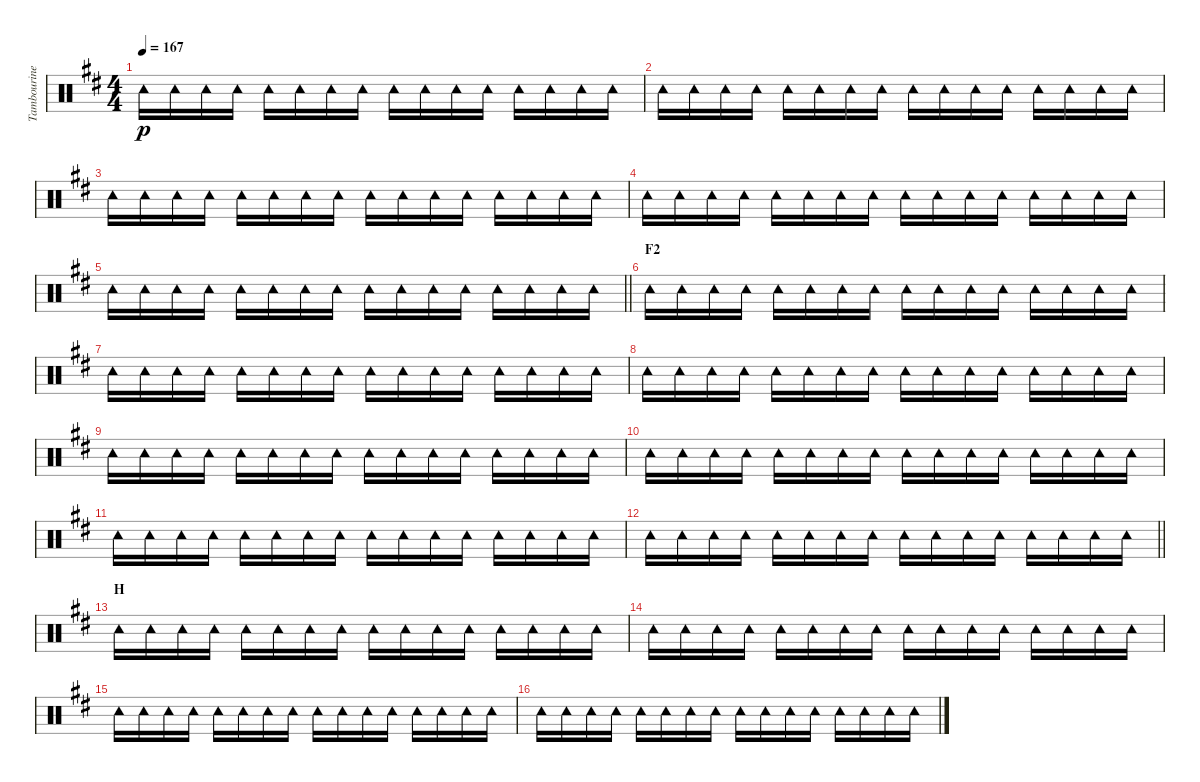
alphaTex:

\track ("Tambourine" "Tambourine") {instrument percussion}
\staff {score}
\articulation defaults
\ts (4 4)
\tempo 167
\clef neutral
\ks d "Tambourine (hit)".16{dy p} "Tambourine (hit)".16 "Tambourine (hit)".16 "Tambourine (hit)".16 "Tambourine (hit)".16 "Tambourine (hit)".16 "Tambourine (hit)".16 "Tambourine (hit)".16 "Tambourine (hit)".16 "Tambourine (hit)".16 "Tambourine (hit)".16 "Tambourine (hit)".16 "Tambourine (hit)".16 "Tambourine (hit)".16 "Tambourine (hit)".16 "Tambourine (hit)".16
|
"Tambourine (hit)".16 "Tambourine (hit)".16 "Tambourine (hit)".16 "Tambourine (hit)".16 "Tambourine (hit)".16 "Tambourine (hit)".16 "Tambourine (hit)".16 "Tambourine (hit)".16 "Tambourine (hit)".16 "Tambourine (hit)".16 "Tambourine (hit)".16 "Tambourine (hit)".16 "Tambourine (hit)".16 "Tambourine (hit)".16 "Tambourine (hit)".16 "Tambourine (hit)".16 |
"Tambourine (hit)".16 "Tambourine (hit)".16 "Tambourine (hit)".16 "Tambourine (hit)".16 "Tambourine (hit)".16 "Tambourine (hit)".16 "Tambourine (hit)".16 "Tambourine (hit)".16 "Tambourine (hit)".16 "Tambourine (hit)".16 "Tambourine (hit)".16 "Tambourine (hit)".16 "Tambourine (hit)".16 "Tambourine (hit)".16 "Tambourine (hit)".16 "Tambourine (hit)".16 |
"Tambourine (hit)".16 "Tambourine (hit)".16 "Tambourine (hit)".16 "Tambourine (hit)".16 "Tambourine (hit)".16 "Tambourine (hit)".16 "Tambourine (hit)".16 "Tambourine (hit)".16 "Tambourine (hit)".16 "Tambourine (hit)".16 "Tambourine (hit)".16 "Tambourine (hit)".16 "Tambourine (hit)".16 "Tambourine (hit)".16 "Tambourine (hit)".16 "Tambourine (hit)".16 |
\barLineRight lightlight "Tambourine (hit)".16 "Tambourine (hit)".16 "Tambourine (hit)".16 "Tambourine (hit)".16 "Tambourine (hit)".16 "Tambourine (hit)".16 "Tambourine (hit)".16 "Tambourine (hit)".16 "Tambourine (hit)".16 "Tambourine (hit)".16 "Tambourine (hit)".16 "Tambourine (hit)".16 "Tambourine (hit)".16 "Tambourine (hit)".16 "Tambourine (hit)".16 "Tambourine (hit)".16
|
\section ("" "F2")
"Tambourine (hit)".16 "Tambourine (hit)".16 "Tambourine (hit)".16 "Tambourine (hit)".16 "Tambourine (hit)".16 "Tambourine (hit)".16 "Tambourine (hit)".16 "Tambourine (hit)".16 "Tambourine (hit)".16 "Tambourine (hit)".16 "Tambourine (hit)".16 "Tambourine (hit)".16 "Tambourine (hit)".16 "Tambourine (hit)".16 "Tambourine (hit)".16 "Tambourine (hit)".16 |
"Tambourine (hit)".16 "Tambourine (hit)".16 "Tambourine (hit)".16 "Tambourine (hit)".16 "Tambourine (hit)".16 "Tambourine (hit)".16 "Tambourine (hit)".16 "Tambourine (hit)".16 "Tambourine (hit)".16 "Tambourine (hit)".16 "Tambourine (hit)".16 "Tambourine (hit)".16 "Tambourine (hit)".16 "Tambourine (hit)".16 "Tambourine (hit)".16 "Tambourine (hit)".16 |
"Tambourine (hit)".16 "Tambourine (hit)".16 "Tambourine (hit)".16 "Tambourine (hit)".16 "Tambourine (hit)".16 "Tambourine (hit)".16 "Tambourine (hit)".16 "Tambourine (hit)".16 "Tambourine (hit)".16 "Tambourine (hit)".16 "Tambourine (hit)".16 "Tambourine (hit)".16 "Tambourine (hit)".16 "Tambourine (hit)".16 "Tambourine (hit)".16 "Tambourine (hit)".16 |
"Tambourine (hit)".16 "Tambourine (hit)".16 "Tambourine (hit)".16 "Tambourine (hit)".16 "Tambourine (hit)".16 "Tambourine (hit)".16 "Tambourine (hit)".16 "Tambourine (hit)".16 "Tambourine (hit)".16 "Tambourine (hit)".16 "Tambourine (hit)".16 "Tambourine (hit)".16 "Tambourine (hit)".16 "Tambourine (hit)".16 "Tambourine (hit)".16 "Tambourine (hit)".16 |
"Tambourine (hit)".16 "Tambourine (hit)".16 "Tambourine (hit)".16 "Tambourine (hit)".16 "Tambourine (hit)".16 "Tambourine (hit)".16 "Tambourine (hit)".16 "Tambourine (hit)".16 "Tambourine (hit)".16 "Tambourine (hit)".16 "Tambourine (hit)".16 "Tambourine (hit)".16 "Tambourine (hit)".16 "Tambourine (hit)".16 "Tambourine (hit)".16 "Tambourine (hit)".16 |
"Tambourine (hit)".16 "Tambourine (hit)".16 "Tambourine (hit)".16 "Tambourine (hit)".16 "Tambourine (hit)".16 "Tambourine (hit)".16 "Tambourine (hit)".16 "Tambourine (hit)".16 "Tambourine (hit)".16 "Tambourine (hit)".16 "Tambourine (hit)".16 "Tambourine (hit)".16 "Tambourine (hit)".16 "Tambourine (hit)".16 "Tambourine (hit)".16 "Tambourine (hit)".16 |
\barLineRight lightlight "Tambourine (hit)".16 "Tambourine (hit)".16 "Tambourine (hit)".16 "Tambourine (hit)".16 "Tambourine (hit)".16 "Tambourine (hit)".16 "Tambourine (hit)".16 "Tambourine (hit)".16 "Tambourine (hit)".16 "Tambourine (hit)".16 "Tambourine (hit)".16 "Tambourine (hit)".16 "Tambourine (hit)".16 "Tambourine (hit)".16 "Tambourine (hit)".16 "Tambourine (hit)".16
|
\section ("" "H")
"Tambourine (hit)".16 "Tambourine (hit)".16 "Tambourine (hit)".16 "Tambourine (hit)".16 "Tambourine (hit)".16 "Tambourine (hit)".16 "Tambourine (hit)".16 "Tambourine (hit)".16 "Tambourine (hit)".16 "Tambourine (hit)".16 "Tambourine (hit)".16 "Tambourine (hit)".16 "Tambourine (hit)".16 "Tambourine (hit)".16 "Tambourine (hit)".16 "Tambourine (hit)".16 |
"Tambourine (hit)".16 "Tambourine (hit)".16 "Tambourine (hit)".16 "Tambourine (hit)".16 "Tambourine (hit)".16 "Tambourine (hit)".16 "Tambourine (hit)".16 "Tambourine (hit)".16 "Tambourine (hit)".16 "Tambourine (hit)".16 "Tambourine (hit)".16 "Tambourine (hit)".16 "Tambourine (hit)".16 "Tambourine (hit)".16 "Tambourine (hit)".16 "Tambourine (hit)".16 |
"Tambourine (hit)".16 "Tambourine (hit)".16 "Tambourine (hit)".16 "Tambourine (hit)".16 "Tambourine (hit)".16 "Tambourine (hit)".16 "Tambourine (hit)".16 "Tambourine (hit)".16 "Tambourine (hit)".16 "Tambourine (hit)".16 "Tambourine (hit)".16 "Tambourine (hit)".16 "Tambourine (hit)".16 "Tambourine (hit)".16 "Tambourine (hit)".16 "Tambourine (hit)".16 |
"Tambourine (hit)".16 "Tambourine (hit)".16 "Tambourine (hit)".16 "Tambourine (hit)".16 "Tambourine (hit)".16 "Tambourine (hit)".16 "Tambourine (hit)".16 "Tambourine (hit)".16 "Tambourine (hit)".16 "Tambourine (hit)".16 "Tambourine (hit)".16 "Tambourine (hit)".16 "Tambourine (hit)".16 "Tambourine (hit)".16 "Tambourine (hit)".16 "Tambourine (hit)".16
